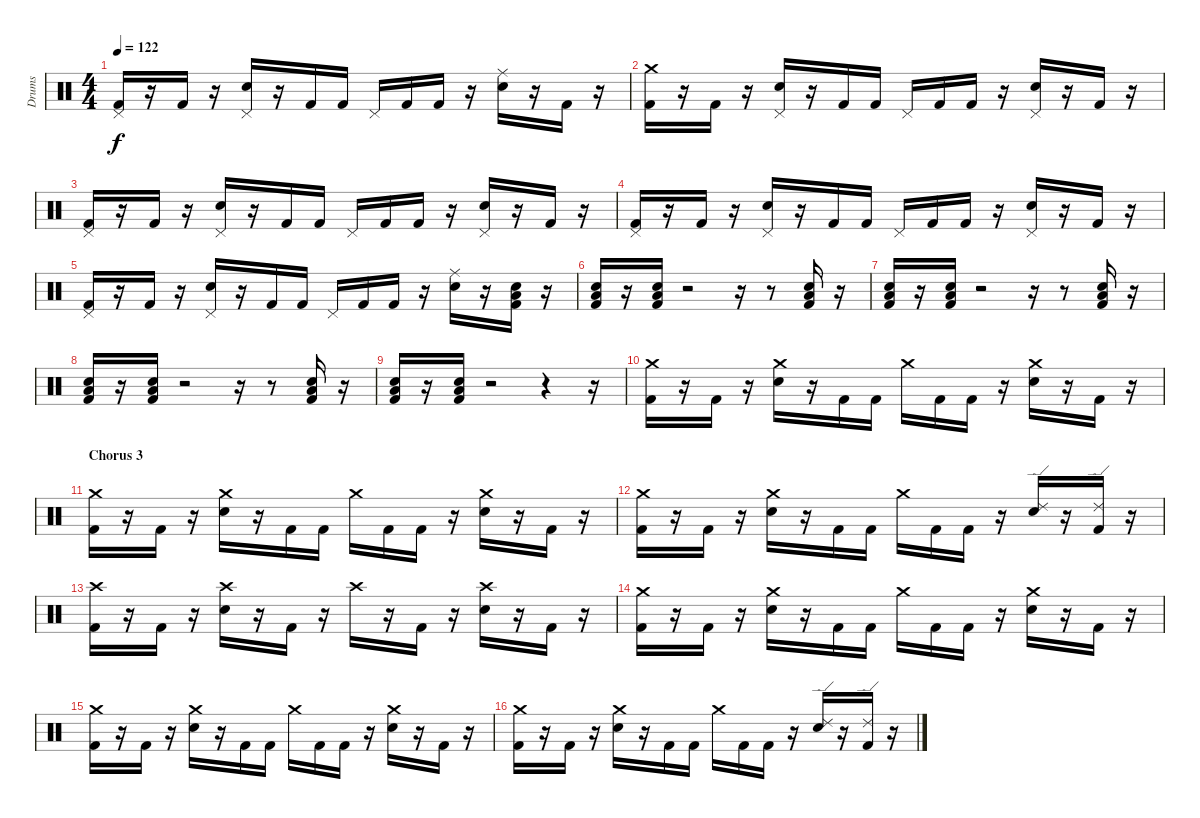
\track ("Drums" "Drums") {instrument percussion}
\staff {score}
\articulation defaults
\ts (4 4)
\tempo 122
\clef neutral
\ks c
("Pedal Hi-Hat (hit)" "Kick (hit) 2").16{dy f} r.16 "Kick (hit) 2".16 r.16 ("Pedal Hi-Hat (hit)" "Snare (hit) 2").16 r.16 "Kick (hit) 2".16 "Kick (hit) 2".16 "Pedal Hi-Hat (hit)".16 "Kick (hit) 2".16 "Kick (hit) 2".16 r.16 ("Ride (middle)" "Snare (hit) 2").16 r.16 "Kick (hit) 2".16 r.16 |
("Crash medium (hit)" "Kick (hit) 2").16 r.16 "Kick (hit) 2".16 r.16 ("Pedal Hi-Hat (hit)" "Snare (hit) 2").16 r.16 "Kick (hit) 2".16 "Kick (hit) 2".16 "Pedal Hi-Hat (hit)".16 "Kick (hit) 2".16 "Kick (hit) 2".16 r.16 ("Pedal Hi-Hat (hit)" "Snare (hit) 2").16 r.16 "Kick (hit) 2".16 r.16 |
("Pedal Hi-Hat (hit)" "Kick (hit) 2").16 r.16 "Kick (hit) 2".16 r.16 ("Pedal Hi-Hat (hit)" "Snare (hit) 2").16 r.16 "Kick (hit) 2".16 "Kick (hit) 2".16 "Pedal Hi-Hat (hit)".16 "Kick (hit) 2".16 "Kick (hit) 2".16 r.16 ("Pedal Hi-Hat (hit)" "Snare (hit) 2").16 r.16 "Kick (hit) 2".16 r.16 |
("Pedal Hi-Hat (hit)" "Kick (hit) 2").16 r.16 "Kick (hit) 2".16 r.16 ("Pedal Hi-Hat (hit)" "Snare (hit) 2").16 r.16 "Kick (hit) 2".16 "Kick (hit) 2".16 "Pedal Hi-Hat (hit)".16 "Kick (hit) 2".16 "Kick (hit) 2".16 r.16 ("Pedal Hi-Hat (hit)" "Snare (hit) 2").16 r.16 "Kick (hit) 2".16 r.16 |
("Pedal Hi-Hat (hit)" "Kick (hit) 2").16 r.16 "Kick (hit) 2".16 r.16 ("Pedal Hi-Hat (hit)" "Snare (hit) 2").16 r.16 "Kick (hit) 2".16 "Kick (hit) 2".16 "Pedal Hi-Hat (hit)".16 "Kick (hit) 2".16 "Kick (hit) 2".16 r.16 ("Ride (middle)" "Snare (hit) 2").16 r.16 ("Snare (hit) 2" "Low Floor Tom (hit)" "Kick (hit) 2").16 r.16 |
("Snare (hit) 2" "Low Floor Tom (hit)" "Kick (hit) 2").16 r.16 ("Snare (hit) 2" "Low Floor Tom (hit)" "Kick (hit) 2").16 r.2 r.16 r.8 ("Snare (hit) 2" "Low Floor Tom (hit)" "Kick (hit) 2").16 r.16 |
("Snare (hit) 2" "Low Floor Tom (hit)" "Kick (hit) 2").16 r.16 ("Snare (hit) 2" "Low Floor Tom (hit)" "Kick (hit) 2").16 r.2 r.16 r.8 ("Snare (hit) 2" "Low Floor Tom (hit)" "Kick (hit) 2").16 r.16 |
("Snare (hit) 2" "Low Floor Tom (hit)" "Kick (hit) 2").16 r.16 ("Snare (hit) 2" "Low Floor Tom (hit)" "Kick (hit) 2").16 r.2 r.16 r.8 ("Snare (hit) 2" "Low Floor Tom (hit)" "Kick (hit) 2").16 r.16 |
("Snare (hit) 2" "Low Floor Tom (hit)" "Kick (hit) 2").16 r.16 ("Snare (hit) 2" "Low Floor Tom (hit)" "Kick (hit) 2").16 r.2 r.4 r.16 |
("Crash medium (hit)" "Kick (hit) 2").16 r.16 "Kick (hit) 2".16 r.16 ("Crash medium (hit)" "Snare (hit) 2").16 r.16 "Kick (hit) 2".16 "Kick (hit) 2".16 "Crash medium (hit)".16 "Kick (hit) 2".16 "Kick (hit) 2".16 r.16 ("Crash medium (hit)" "Snare (hit) 2").16 r.16 "Kick (hit) 2".16 r.16 |
\section ("" "Chorus 3")
("Crash medium (hit)" "Kick (hit) 2").16 r.16 "Kick (hit) 2".16 r.16 ("Crash medium (hit)" "Snare (hit) 2").16 r.16 "Kick (hit) 2".16 "Kick (hit) 2".16 "Crash medium (hit)".16 "Kick (hit) 2".16 "Kick (hit) 2".16 r.16 ("Crash medium (hit)" "Snare (hit) 2").16 r.16 "Kick (hit) 2".16 r.16 |
("Crash medium (hit)" "Kick (hit) 2").16 r.16 "Kick (hit) 2".16 r.16 ("Crash medium (hit)" "Snare (hit) 2").16 r.16 "Kick (hit) 2".16 "Kick (hit) 2".16 "Crash medium (hit)".16 "Kick (hit) 2".16 "Kick (hit) 2".16 r.16 ("Ride (edge) 2" "Snare (hit) 2").16 r.16 ("Ride (edge) 2" "Kick (hit) 2").16 r.16 |
("Crash high (hit)" "Kick (hit) 2").16 r.16 "Kick (hit) 2".16 r.16 ("Crash high (hit)" "Snare (hit) 2").16 r.16 "Kick (hit) 2".16 r.16 "Crash high (hit)".16 r.16 "Kick (hit) 2".16 r.16 ("Crash high (hit)" "Snare (hit) 2").16 r.16 "Kick (hit) 2".16 r.16 |
("Crash medium (hit)" "Kick (hit) 2").16 r.16 "Kick (hit) 2".16 r.16 ("Crash medium (hit)" "Snare (hit) 2").16 r.16 "Kick (hit) 2".16 "Kick (hit) 2".16 "Crash medium (hit)".16 "Kick (hit) 2".16 "Kick (hit) 2".16 r.16 ("Crash medium (hit)" "Snare (hit) 2").16 r.16 "Kick (hit) 2".16 r.16 |
("Crash medium (hit)" "Kick (hit) 2").16 r.16 "Kick (hit) 2".16 r.16 ("Crash medium (hit)" "Snare (hit) 2").16 r.16 "Kick (hit) 2".16 "Kick (hit) 2".16 "Crash medium (hit)".16 "Kick (hit) 2".16 "Kick (hit) 2".16 r.16 ("Crash medium (hit)" "Snare (hit) 2").16 r.16 "Kick (hit) 2".16 r.16 |
("Crash medium (hit)" "Kick (hit) 2").16 r.16 "Kick (hit) 2".16 r.16 ("Crash medium (hit)" "Snare (hit) 2").16 r.16 "Kick (hit) 2".16 "Kick (hit) 2".16 "Crash medium (hit)".16 "Kick (hit) 2".16 "Kick (hit) 2".16 r.16 ("Ride (edge) 2" "Snare (hit) 2").16 r.16 ("Ride (edge) 2" "Kick (hit) 2").16 r.16
